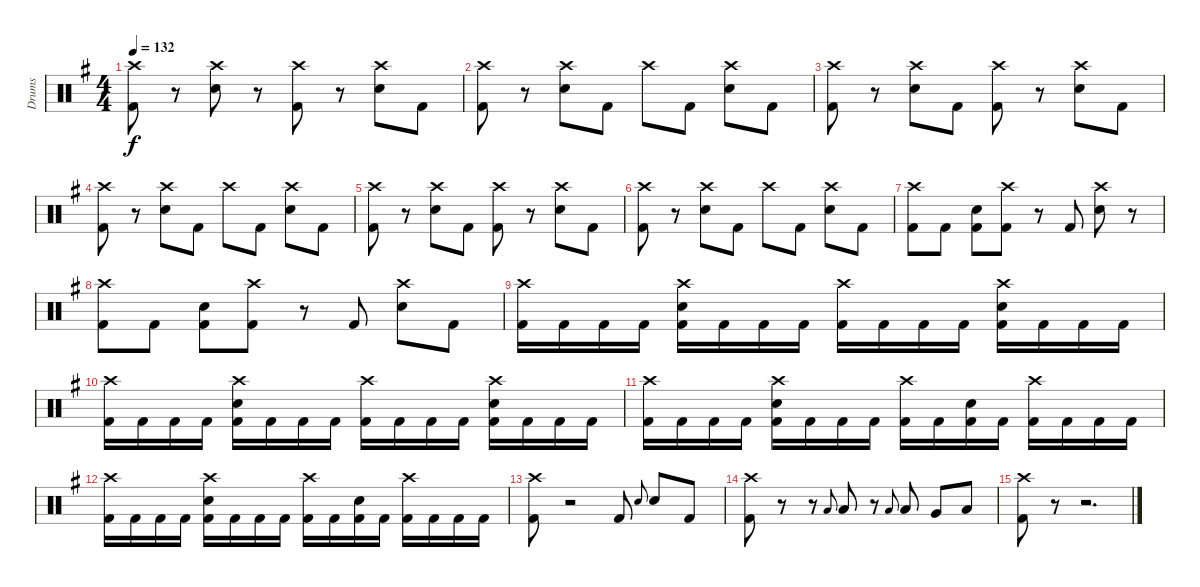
\track ("Drums" "Drums") {instrument percussion}
\staff {score}
\articulation defaults
\ts (4 4)
\tempo 132
\clef neutral
\ks eminor
("Crash high (hit)" "Kick (hit) 2").8{dy f} r.8 ("Crash high (hit)" "Electric Snare (hit)").8 r.8 ("Crash high (hit)" "Kick (hit) 2").8 r.8 ("Crash high (hit)" "Electric Snare (hit)").8 "Kick (hit) 2".8 |
("Crash high (hit)" "Kick (hit) 2").8 r.8 ("Crash high (hit)" "Electric Snare (hit)").8 "Kick (hit) 2".8 "Crash high (hit)".8 "Kick (hit) 2".8 ("Crash high (hit)" "Electric Snare (hit)").8 "Kick (hit) 2".8 |
("Crash high (hit)" "Kick (hit) 2").8 r.8 ("Crash high (hit)" "Electric Snare (hit)").8 "Kick (hit) 2".8 ("Crash high (hit)" "Kick (hit) 2").8 r.8 ("Crash high (hit)" "Electric Snare (hit)").8 "Kick (hit) 2".8 |
("Crash high (hit)" "Kick (hit) 2").8 r.8 ("Crash high (hit)" "Electric Snare (hit)").8 "Kick (hit) 2".8 "Crash high (hit)".8 "Kick (hit) 2".8 ("Crash high (hit)" "Electric Snare (hit)").8 "Kick (hit) 2".8 |
("Crash high (hit)" "Kick (hit) 2").8 r.8 ("Crash high (hit)" "Electric Snare (hit)").8 "Kick (hit) 2".8 ("Crash high (hit)" "Kick (hit) 2").8 r.8 ("Crash high (hit)" "Electric Snare (hit)").8 "Kick (hit) 2".8 |
("Crash high (hit)" "Kick (hit) 2").8 r.8 ("Crash high (hit)" "Electric Snare (hit)").8 "Kick (hit) 2".8 "Crash high (hit)".8 "Kick (hit) 2".8 ("Crash high (hit)" "Electric Snare (hit)").8 "Kick (hit) 2".8 |
("Crash high (hit)" "Kick (hit) 2").8 "Kick (hit) 2".8 ("Electric Snare (hit)" "Kick (hit) 2").8 ("Crash high (hit)" "Kick (hit) 2").8 r.8 "Kick (hit) 2".8 ("Crash high (hit)" "Electric Snare (hit)").8 r.8 |
("Crash high (hit)" "Kick (hit) 2").8 "Kick (hit) 2".8 ("Electric Snare (hit)" "Kick (hit) 2").8 ("Crash high (hit)" "Kick (hit) 2").8 r.8 "Kick (hit) 2".8 ("Crash high (hit)" "Electric Snare (hit)").8 "Kick (hit) 2".8 |
("Crash high (hit)" "Kick (hit) 2").16 "Kick (hit) 2".16 "Kick (hit) 2".16 "Kick (hit) 2".16 ("Crash high (hit)" "Electric Snare (hit)" "Kick (hit) 2").16 "Kick (hit) 2".16 "Kick (hit) 2".16 "Kick (hit) 2".16 ("Crash high (hit)" "Kick (hit) 2").16 "Kick (hit) 2".16 "Kick (hit) 2".16 "Kick (hit) 2".16 ("Crash high (hit)" "Electric Snare (hit)" "Kick (hit) 2").16 "Kick (hit) 2".16 "Kick (hit) 2".16 "Kick (hit) 2".16 |
("Crash high (hit)" "Kick (hit) 2").16 "Kick (hit) 2".16 "Kick (hit) 2".16 "Kick (hit) 2".16 ("Crash high (hit)" "Electric Snare (hit)" "Kick (hit) 2").16 "Kick (hit) 2".16 "Kick (hit) 2".16 "Kick (hit) 2".16 ("Crash high (hit)" "Kick (hit) 2").16 "Kick (hit) 2".16 "Kick (hit) 2".16 "Kick (hit) 2".16 ("Crash high (hit)" "Electric Snare (hit)" "Kick (hit) 2").16 "Kick (hit) 2".16 "Kick (hit) 2".16 "Kick (hit) 2".16 |
("Crash high (hit)" "Kick (hit) 2").16 "Kick (hit) 2".16 "Kick (hit) 2".16 "Kick (hit) 2".16 ("Crash high (hit)" "Electric Snare (hit)" "Kick (hit) 2").16 "Kick (hit) 2".16 "Kick (hit) 2".16 "Kick (hit) 2".16 ("Crash high (hit)" "Kick (hit) 2").16 "Kick (hit) 2".16 ("Electric Snare (hit)" "Kick (hit) 2").16 "Kick (hit) 2".16 ("Crash high (hit)" "Kick (hit) 2").16 "Kick (hit) 2".16 "Kick (hit) 2".16 "Kick (hit) 2".16 |
("Crash high (hit)" "Kick (hit) 2").16 "Kick (hit) 2".16 "Kick (hit) 2".16 "Kick (hit) 2".16 ("Crash high (hit)" "Electric Snare (hit)" "Kick (hit) 2").16 "Kick (hit) 2".16 "Kick (hit) 2".16 "Kick (hit) 2".16 ("Crash high (hit)" "Kick (hit) 2").16 "Kick (hit) 2".16 ("Electric Snare (hit)" "Kick (hit) 2").16 "Kick (hit) 2".16 ("Crash high (hit)" "Kick (hit) 2").16 "Kick (hit) 2".16 "Kick (hit) 2".16 "Kick (hit) 2".16 |
("Crash high (hit)" "Kick (hit) 2").8 r.2 "Kick (hit) 2".8 "Electric Snare (hit)".8{gr onbeat} "Electric Snare (hit)".8 "Kick (hit) 2".8 |
("Crash high (hit)" "Kick (hit) 2").8 r.8 r.8 "Low Tom (hit)".8{gr onbeat} "Low Tom (hit)".8 r.8 "Low Tom (hit)".8{gr onbeat} "Low Tom (hit)".8 "Very Low Tom (hit)".8 "Low Floor Tom (hit)".8 |
("Crash high (hit)" "Kick (hit) 2").8 r.8 r.2{d}
